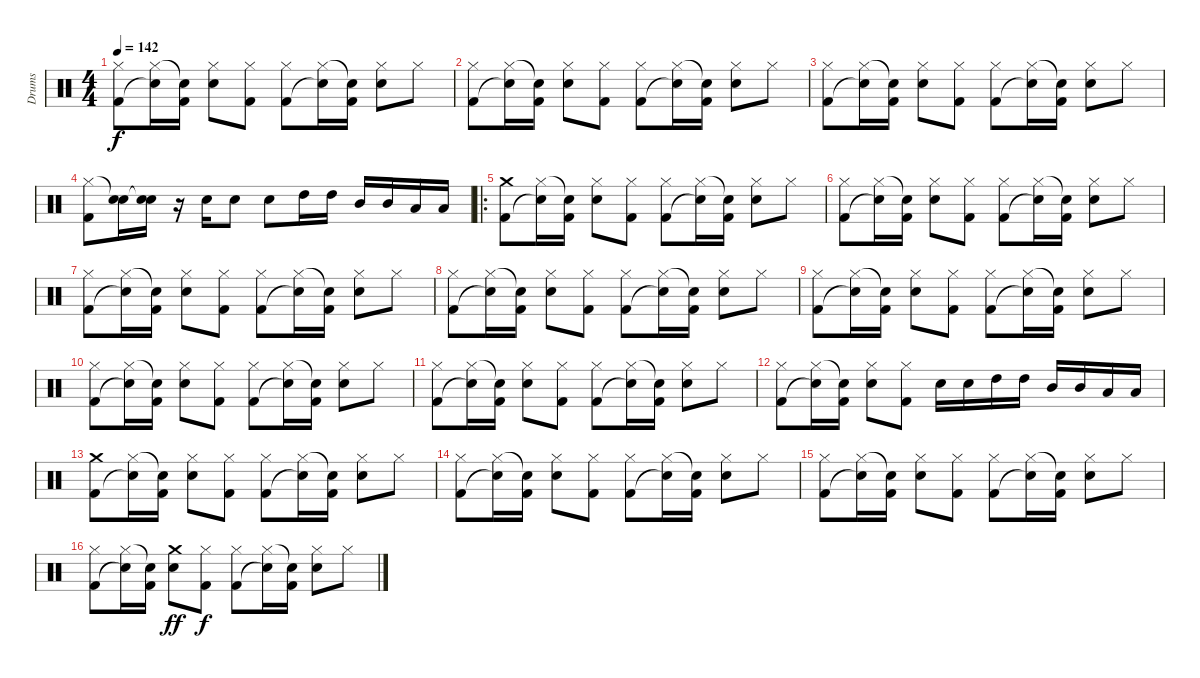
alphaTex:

\track ("Drums" "Drums") {instrument percussion}
\staff {score}
\articulation defaults
\ts (4 4)
\tempo 142
\clef neutral
\ks c
("Hi-Hat (closed)" "Kick (hit) 2").8{dy f} ("Hi-Hat (closed)" "Snare (hit)"{t}).16 ("Snare (hit)"{t} "Kick (hit) 2").16 ("Hi-Hat (closed)" "Snare (hit) 2").8 ("Hi-Hat (closed)" "Kick (hit) 2").8 ("Hi-Hat (closed)" "Kick (hit) 2").8 ("Hi-Hat (closed)" "Snare (hit)"{t}).16 ("Snare (hit)"{t} "Kick (hit) 2").16 ("Hi-Hat (closed)" "Snare (hit) 2").8 "Hi-Hat (closed)".8 |
("Hi-Hat (closed)" "Kick (hit) 2").8 ("Hi-Hat (closed)" "Snare (hit)"{t}).16 ("Snare (hit)"{t} "Kick (hit) 2").16 ("Hi-Hat (closed)" "Snare (hit) 2").8 ("Hi-Hat (closed)" "Kick (hit) 2").8 ("Hi-Hat (closed)" "Kick (hit) 2").8 ("Hi-Hat (closed)" "Snare (hit)"{t}).16 ("Snare (hit)"{t} "Kick (hit) 2").16 ("Hi-Hat (closed)" "Snare (hit) 2").8 "Hi-Hat (closed)".8 |
("Hi-Hat (closed)" "Kick (hit) 2").8 ("Hi-Hat (closed)" "Snare (hit)"{t}).16 ("Snare (hit)"{t} "Kick (hit) 2").16 ("Hi-Hat (closed)" "Snare (hit) 2").8 ("Hi-Hat (closed)" "Kick (hit) 2").8 ("Hi-Hat (closed)" "Kick (hit) 2").8 ("Hi-Hat (closed)" "Snare (hit)"{t}).16 ("Snare (hit)"{t} "Kick (hit) 2").16 ("Hi-Hat (closed)" "Snare (hit) 2").8 "Hi-Hat (closed)".8 |
("Hi-Hat (closed)" "Kick (hit) 2").8 ("Snare (hit)"{t} "Snare (hit) 2").16 ("Snare (hit)"{t} "Snare (hit) 2").16 r.16 "Snare (hit) 2".16 "Snare (hit) 2".8 "Snare (hit) 2".8 "High Tom (hit)".16 "High Tom (hit)".16 "Mid Tom (hit)".16 "Mid Tom (hit)".16 "Low Tom (hit)".16 "Low Tom (hit)".16 |
\ro
("Crash medium (hit)" "Kick (hit) 2").8 ("Hi-Hat (closed)" "Snare (hit)"{t}).16 ("Snare (hit)"{t} "Kick (hit) 2").16 ("Hi-Hat (closed)" "Snare (hit) 2").8 ("Hi-Hat (closed)" "Kick (hit) 2").8 ("Hi-Hat (closed)" "Kick (hit) 2").8 ("Hi-Hat (closed)" "Snare (hit)"{t}).16 ("Snare (hit)"{t} "Kick (hit) 2").16 ("Hi-Hat (closed)" "Snare (hit) 2").8 "Hi-Hat (closed)".8 |
("Hi-Hat (closed)" "Kick (hit) 2").8 ("Hi-Hat (closed)" "Snare (hit)"{t}).16 ("Snare (hit)"{t} "Kick (hit) 2").16 ("Hi-Hat (closed)" "Snare (hit) 2").8 ("Hi-Hat (closed)" "Kick (hit) 2").8 ("Hi-Hat (closed)" "Kick (hit) 2").8 ("Hi-Hat (closed)" "Snare (hit)"{t}).16 ("Snare (hit)"{t} "Kick (hit) 2").16 ("Hi-Hat (closed)" "Snare (hit) 2").8 "Hi-Hat (closed)".8 |
("Hi-Hat (closed)" "Kick (hit) 2").8 ("Hi-Hat (closed)" "Snare (hit)"{t}).16 ("Snare (hit)"{t} "Kick (hit) 2").16 ("Hi-Hat (closed)" "Snare (hit) 2").8 ("Hi-Hat (closed)" "Kick (hit) 2").8 ("Hi-Hat (closed)" "Kick (hit) 2").8 ("Hi-Hat (closed)" "Snare (hit)"{t}).16 ("Snare (hit)"{t} "Kick (hit) 2").16 ("Hi-Hat (closed)" "Snare (hit) 2").8 "Hi-Hat (closed)".8 |
("Hi-Hat (closed)" "Kick (hit) 2").8 ("Hi-Hat (closed)" "Snare (hit)"{t}).16 ("Snare (hit)"{t} "Kick (hit) 2").16 ("Hi-Hat (closed)" "Snare (hit) 2").8 ("Hi-Hat (closed)" "Kick (hit) 2").8 ("Hi-Hat (closed)" "Kick (hit) 2").8 ("Hi-Hat (closed)" "Snare (hit)"{t}).16 ("Snare (hit)"{t} "Kick (hit) 2").16 ("Hi-Hat (closed)" "Snare (hit) 2").8 "Hi-Hat (closed)".8 |
("Hi-Hat (closed)" "Kick (hit) 2").8 ("Hi-Hat (closed)" "Snare (hit)"{t}).16 ("Snare (hit)"{t} "Kick (hit) 2").16 ("Hi-Hat (closed)" "Snare (hit) 2").8 ("Hi-Hat (closed)" "Kick (hit) 2").8 ("Hi-Hat (closed)" "Kick (hit) 2").8 ("Hi-Hat (closed)" "Snare (hit)"{t}).16 ("Snare (hit)"{t} "Kick (hit) 2").16 ("Hi-Hat (closed)" "Snare (hit) 2").8 "Hi-Hat (closed)".8 |
("Hi-Hat (closed)" "Kick (hit) 2").8 ("Hi-Hat (closed)" "Snare (hit)"{t}).16 ("Snare (hit)"{t} "Kick (hit) 2").16 ("Hi-Hat (closed)" "Snare (hit) 2").8 ("Hi-Hat (closed)" "Kick (hit) 2").8 ("Hi-Hat (closed)" "Kick (hit) 2").8 ("Hi-Hat (closed)" "Snare (hit)"{t}).16 ("Snare (hit)"{t} "Kick (hit) 2").16 ("Hi-Hat (closed)" "Snare (hit) 2").8 "Hi-Hat (closed)".8 |
("Hi-Hat (closed)" "Kick (hit) 2").8 ("Hi-Hat (closed)" "Snare (hit)"{t}).16 ("Snare (hit)"{t} "Kick (hit) 2").16 ("Hi-Hat (closed)" "Snare (hit) 2").8 ("Hi-Hat (closed)" "Kick (hit) 2").8 ("Hi-Hat (closed)" "Kick (hit) 2").8 ("Hi-Hat (closed)" "Snare (hit)"{t}).16 ("Snare (hit)"{t} "Kick (hit) 2").16 ("Hi-Hat (closed)" "Snare (hit) 2").8 "Hi-Hat (closed)".8 |
("Hi-Hat (closed)" "Kick (hit) 2").8 ("Hi-Hat (closed)" "Snare (hit)"{t}).16 ("Snare (hit)"{t} "Kick (hit) 2").16 ("Hi-Hat (closed)" "Snare (hit) 2").8 ("Hi-Hat (closed)" "Kick (hit) 2").8 "Snare (hit) 2".16 "Snare (hit) 2".16 "High Tom (hit)".16 "High Tom (hit)".16 "Mid Tom (hit)".16 "Mid Tom (hit)".16 "Low Tom (hit)".16 "Low Tom (hit)".16 |
("Crash medium (hit)" "Kick (hit) 2").8 ("Hi-Hat (closed)" "Snare (hit)"{t}).16 ("Snare (hit)"{t} "Kick (hit) 2").16 ("Hi-Hat (closed)" "Snare (hit) 2").8 ("Hi-Hat (closed)" "Kick (hit) 2").8 ("Hi-Hat (closed)" "Kick (hit) 2").8 ("Hi-Hat (closed)" "Snare (hit)"{t}).16 ("Snare (hit)"{t} "Kick (hit) 2").16 ("Hi-Hat (closed)" "Snare (hit) 2").8 "Hi-Hat (closed)".8 |
("Hi-Hat (closed)" "Kick (hit) 2").8 ("Hi-Hat (closed)" "Snare (hit)"{t}).16 ("Snare (hit)"{t} "Kick (hit) 2").16 ("Hi-Hat (closed)" "Snare (hit) 2").8 ("Hi-Hat (closed)" "Kick (hit) 2").8 ("Hi-Hat (closed)" "Kick (hit) 2").8 ("Hi-Hat (closed)" "Snare (hit)"{t}).16 ("Snare (hit)"{t} "Kick (hit) 2").16 ("Hi-Hat (closed)" "Snare (hit) 2").8 "Hi-Hat (closed)".8 |
("Hi-Hat (closed)" "Kick (hit) 2").8 ("Hi-Hat (closed)" "Snare (hit)"{t}).16 ("Snare (hit)"{t} "Kick (hit) 2").16 ("Hi-Hat (closed)" "Snare (hit) 2").8 ("Hi-Hat (closed)" "Kick (hit) 2").8 ("Hi-Hat (closed)" "Kick (hit) 2").8 ("Hi-Hat (closed)" "Snare (hit)"{t}).16 ("Snare (hit)"{t} "Kick (hit) 2").16 ("Hi-Hat (closed)" "Snare (hit) 2").8 "Hi-Hat (closed)".8 |
("Hi-Hat (closed)" "Kick (hit) 2").8 ("Hi-Hat (closed)" "Snare (hit)"{t}).16 ("Snare (hit)"{t} "Kick (hit) 2").16 ("Crash medium (hit)" "Snare (hit) 2").8{dy ff} ("Hi-Hat (closed)" "Kick (hit) 2").8{dy f} ("Hi-Hat (closed)" "Kick (hit) 2").8 ("Hi-Hat (closed)" "Snare (hit)"{t}).16 ("Snare (hit)"{t} "Kick (hit) 2").16 ("Hi-Hat (closed)" "Snare (hit) 2").8 "Hi-Hat (closed)".8
